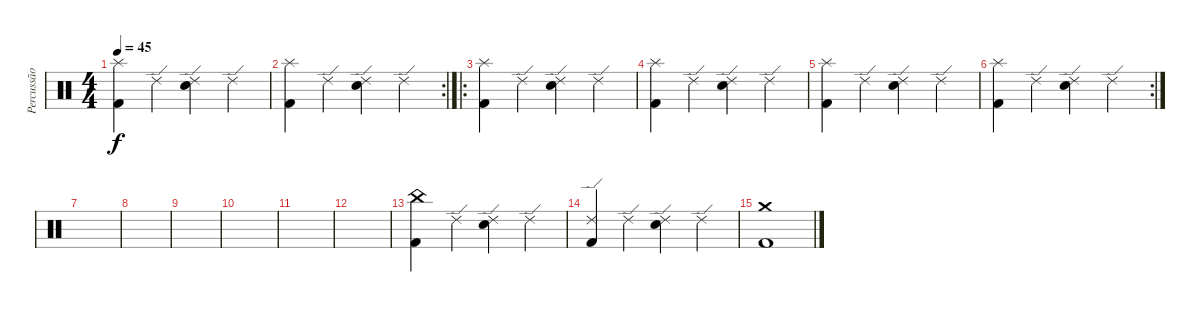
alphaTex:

\track ("Percussão" "Percussão") {instrument percussion}
\staff {score}
\articulation defaults
\ts (4 4)
\tempo 45
\clef neutral
\ks c
("Splash (hit)" "Kick (hit) 2").4{dy f} "Ride (edge) 2".4 ("Ride (edge) 2" "Snare (hit) 2").4 "Ride (edge) 2".4 |
\rc 2
("Splash (hit)" "Kick (hit) 2").4 "Ride (edge) 2".4 ("Ride (edge) 2" "Snare (hit) 2").4 "Ride (edge) 2".4 |
\ro
("Splash (hit)" "Kick (hit) 2").4 "Ride (edge) 2".4 ("Ride (edge) 2" "Snare (hit) 2").4 "Ride (edge) 2".4 |
("Splash (hit)" "Kick (hit) 2").4 "Ride (edge) 2".4 ("Ride (edge) 2" "Snare (hit) 2").4 "Ride (edge) 2".4 |
("Splash (hit)" "Kick (hit) 2").4 "Ride (edge) 2".4 ("Ride (edge) 2" "Snare (hit) 2").4 "Ride (edge) 2".4 |
\rc 2
("Splash (hit)" "Kick (hit) 2").4 "Ride (edge) 2".4 ("Ride (edge) 2" "Snare (hit) 2").4 "Ride (edge) 2".4 |
|
|
|
|
|
|
("China (hit)" "Kick (hit) 2").4 "Ride (edge) 2".4 ("Ride (edge) 2" "Snare (hit) 2").4 "Ride (edge) 2".4 |
("Ride (edge) 2" "Kick (hit) 2").4 "Ride (edge) 2".4 ("Ride (edge) 2" "Snare (hit) 2").4 "Ride (edge) 2".4 |
("Crash medium (hit)" "Kick (hit) 2").1
